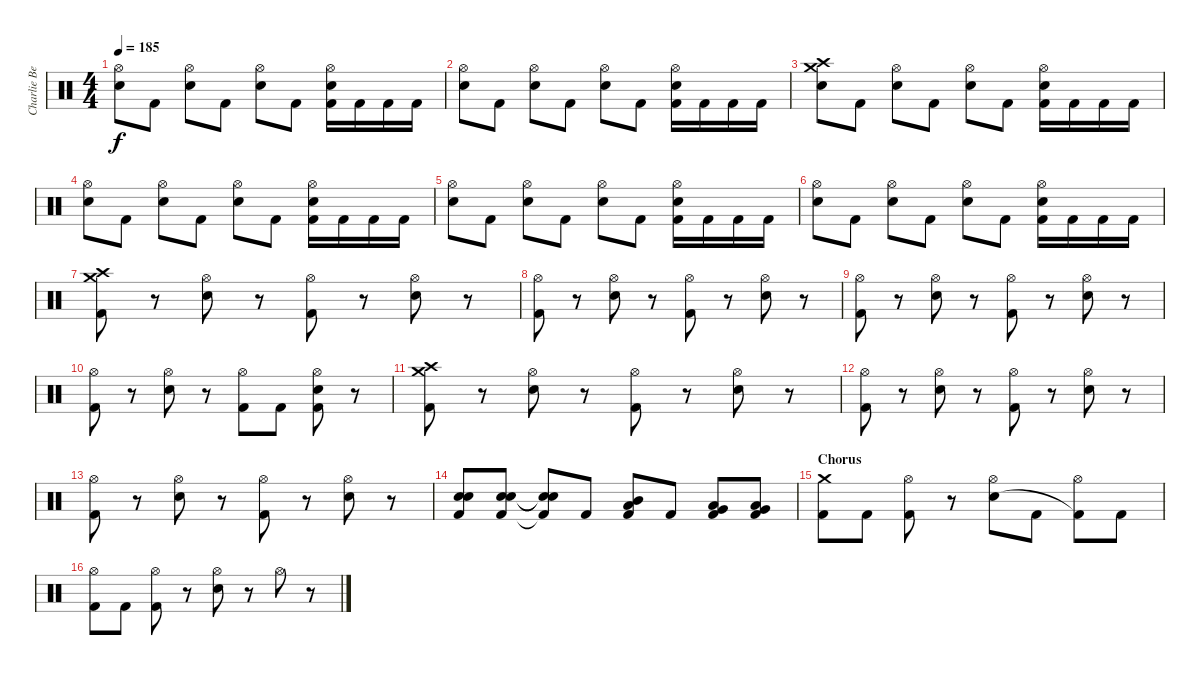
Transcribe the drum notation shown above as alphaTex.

\track ("Charlie Benante" "Charlie Be") {instrument percussion}
\staff {score}
\articulation defaults
\ts (4 4)
\tempo 185
\clef neutral
\ks c
("Hi-Hat (open)" "Snare (hit) 2").8{dy f} "Kick (hit) 2".8 ("Hi-Hat (open)" "Snare (hit) 2").8 "Kick (hit) 2".8 ("Hi-Hat (open)" "Snare (hit) 2").8 "Kick (hit) 2".8 ("Hi-Hat (open)" "Snare (hit) 2" "Kick (hit) 2").16 "Kick (hit) 2".16 "Kick (hit) 2".16 "Kick (hit) 2".16 |
("Hi-Hat (open)" "Snare (hit) 2").8 "Kick (hit) 2".8 ("Hi-Hat (open)" "Snare (hit) 2").8 "Kick (hit) 2".8 ("Hi-Hat (open)" "Snare (hit) 2").8 "Kick (hit) 2".8 ("Hi-Hat (open)" "Snare (hit) 2" "Kick (hit) 2").16 "Kick (hit) 2".16 "Kick (hit) 2".16 "Kick (hit) 2".16 |
("Crash high (hit)" "Crash medium (hit)" "Snare (hit) 2").8 "Kick (hit) 2".8 ("Hi-Hat (open)" "Snare (hit) 2").8 "Kick (hit) 2".8 ("Hi-Hat (open)" "Snare (hit) 2").8 "Kick (hit) 2".8 ("Hi-Hat (open)" "Snare (hit) 2" "Kick (hit) 2").16 "Kick (hit) 2".16 "Kick (hit) 2".16 "Kick (hit) 2".16 |
("Hi-Hat (open)" "Snare (hit) 2").8 "Kick (hit) 2".8 ("Hi-Hat (open)" "Snare (hit) 2").8 "Kick (hit) 2".8 ("Hi-Hat (open)" "Snare (hit) 2").8 "Kick (hit) 2".8 ("Hi-Hat (open)" "Snare (hit) 2" "Kick (hit) 2").16 "Kick (hit) 2".16 "Kick (hit) 2".16 "Kick (hit) 2".16 |
("Hi-Hat (open)" "Snare (hit) 2").8 "Kick (hit) 2".8 ("Hi-Hat (open)" "Snare (hit) 2").8 "Kick (hit) 2".8 ("Hi-Hat (open)" "Snare (hit) 2").8 "Kick (hit) 2".8 ("Hi-Hat (open)" "Snare (hit) 2" "Kick (hit) 2").16 "Kick (hit) 2".16 "Kick (hit) 2".16 "Kick (hit) 2".16 |
("Hi-Hat (open)" "Snare (hit) 2").8 "Kick (hit) 2".8 ("Hi-Hat (open)" "Snare (hit) 2").8 "Kick (hit) 2".8 ("Hi-Hat (open)" "Snare (hit) 2").8 "Kick (hit) 2".8 ("Hi-Hat (open)" "Snare (hit) 2" "Kick (hit) 2").16 "Kick (hit) 2".16 "Kick (hit) 2".16 "Kick (hit) 2".16 |
("Crash high (hit)" "Crash medium (hit)" "Kick (hit) 2").8 r.8 ("Hi-Hat (open)" "Snare (hit) 2").8 r.8 ("Hi-Hat (open)" "Kick (hit) 2").8 r.8 ("Hi-Hat (open)" "Snare (hit) 2").8 r.8 |
("Hi-Hat (open)" "Kick (hit) 2").8 r.8 ("Hi-Hat (open)" "Snare (hit) 2").8 r.8 ("Hi-Hat (open)" "Kick (hit) 2").8 r.8 ("Hi-Hat (open)" "Snare (hit) 2").8 r.8 |
("Hi-Hat (open)" "Kick (hit) 2").8 r.8 ("Hi-Hat (open)" "Snare (hit) 2").8 r.8 ("Hi-Hat (open)" "Kick (hit) 2").8 r.8 ("Hi-Hat (open)" "Snare (hit) 2").8 r.8 |
("Hi-Hat (open)" "Kick (hit) 2").8 r.8 ("Hi-Hat (open)" "Snare (hit) 2").8 r.8 ("Hi-Hat (open)" "Kick (hit) 2").8 "Kick (hit) 2".8 ("Hi-Hat (open)" "Snare (hit) 2" "Kick (hit) 2").8 r.8 |
("Crash high (hit)" "Crash medium (hit)" "Kick (hit) 2").8 r.8 ("Hi-Hat (open)" "Snare (hit) 2").8 r.8 ("Hi-Hat (open)" "Kick (hit) 2").8 r.8 ("Hi-Hat (open)" "Snare (hit) 2").8 r.8 |
("Hi-Hat (open)" "Kick (hit) 2").8 r.8 ("Hi-Hat (open)" "Snare (hit) 2").8 r.8 ("Hi-Hat (open)" "Kick (hit) 2").8 r.8 ("Hi-Hat (open)" "Snare (hit) 2").8 r.8 |
("Hi-Hat (open)" "Kick (hit) 2").8 r.8 ("Hi-Hat (open)" "Snare (hit) 2").8 r.8 ("Hi-Hat (open)" "Kick (hit) 2").8 r.8 ("Hi-Hat (open)" "Snare (hit) 2").8 r.8 |
("Snare (hit) 2" "Snare (hit) 2" "Kick (hit) 2").8 ("Snare (hit) 2" "Snare (hit) 2" "Kick (hit) 2").8 ("Snare (hit)"{t} "Snare (hit)"{t} "Kick (hit) 2"{t}).8 "Kick (hit) 2".8 ("Low Tom (hit)" "Mid Tom (hit)" "Kick (hit) 2").8 "Kick (hit) 2".8 ("Low Floor Tom (hit)" "Very Low Tom (hit)" "Kick (hit) 2").8 ("Low Floor Tom (hit)" "Very Low Tom (hit)" "Kick (hit) 2").8 |
\section ("" "Chorus")
("Crash medium (hit)" "Kick (hit) 2").8 "Kick (hit) 2".8 ("Hi-Hat (open)" "Kick (hit) 2").8 r.8 ("Hi-Hat (open)" "Snare (hit) 2").8 "Kick (hit) 2".8 ("Hi-Hat (open)" "Kick (hit) 2"{t}).8 "Kick (hit) 2".8 |
("Hi-Hat (open)" "Kick (hit) 2").8 "Kick (hit) 2".8 ("Hi-Hat (open)" "Kick (hit) 2").8 r.8 ("Hi-Hat (open)" "Snare (hit) 2").8 r.8 "Hi-Hat (open)".8 r.8
